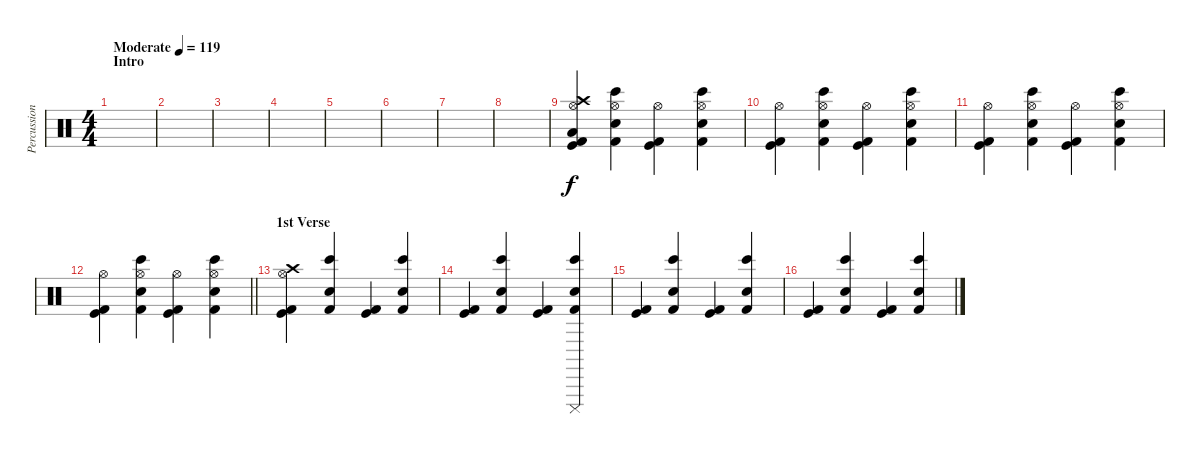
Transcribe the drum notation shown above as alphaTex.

\track ("Percussion" "Percussion") {instrument percussion}
\staff {score}
\articulation defaults
\ts (4 4)
\section ("" "Intro")
\tempo (119 "Moderate")
\clef neutral
\ks c
|
|
|
|
|
|
|
|
("Low Floor Tom (hit)" "Crash high (hit)" "Hi-Hat (open)" "Kick (hit)" "Kick (hit) 2").4 ("Hi-Hat (open)" "Bongo High (hit)" "Hand Clap (hit)" "Kick (hit) 2").4{dy f} ("Hi-Hat (open)" "Kick (hit)" "Kick (hit) 2").4 ("Hi-Hat (open)" "Bongo High (hit)" "Hand Clap (hit)" "Kick (hit) 2").4 |
("Hi-Hat (open)" "Kick (hit)" "Kick (hit) 2").4 ("Hi-Hat (open)" "Bongo High (hit)" "Hand Clap (hit)" "Kick (hit) 2").4 ("Hi-Hat (open)" "Kick (hit)" "Kick (hit) 2").4 ("Hi-Hat (open)" "Bongo High (hit)" "Hand Clap (hit)" "Kick (hit) 2").4 |
("Hi-Hat (open)" "Kick (hit)" "Kick (hit) 2").4 ("Hi-Hat (open)" "Bongo High (hit)" "Hand Clap (hit)" "Kick (hit) 2").4 ("Hi-Hat (open)" "Kick (hit)" "Kick (hit) 2").4 ("Hi-Hat (open)" "Bongo High (hit)" "Hand Clap (hit)" "Kick (hit) 2").4 |
\barLineRight lightlight
("Hi-Hat (open)" "Kick (hit)" "Kick (hit) 2").4 ("Hi-Hat (open)" "Bongo High (hit)" "Hand Clap (hit)" "Kick (hit) 2").4 ("Hi-Hat (open)" "Kick (hit)" "Kick (hit) 2").4 ("Hi-Hat (open)" "Bongo High (hit)" "Hand Clap (hit)" "Kick (hit) 2").4 |
\section ("" "1st Verse")
("Crash high (hit)" "Hi-Hat (open)" "Kick (hit)" "Kick (hit) 2").4 ("Bongo High (hit)" "Hand Clap (hit)" "Kick (hit) 2").4 ("Kick (hit)" "Kick (hit) 2").4 ("Bongo High (hit)" "Hand Clap (hit)" "Kick (hit) 2").4 |
("Kick (hit)" "Kick (hit) 2").4 ("Bongo High (hit)" "Hand Clap (hit)" "Kick (hit) 2").4 ("Kick (hit)" "Kick (hit) 2").4 ("Cuica (mute)" "Bongo High (hit)" "Hand Clap (hit)" "Kick (hit) 2").4 |
("Kick (hit)" "Kick (hit) 2").4 ("Bongo High (hit)" "Hand Clap (hit)" "Kick (hit) 2").4 ("Kick (hit)" "Kick (hit) 2").4 ("Bongo High (hit)" "Hand Clap (hit)" "Kick (hit) 2").4 |
("Kick (hit)" "Kick (hit) 2").4 ("Bongo High (hit)" "Hand Clap (hit)" "Kick (hit) 2").4 ("Kick (hit)" "Kick (hit) 2").4 ("Bongo High (hit)" "Hand Clap (hit)" "Kick (hit) 2").4
